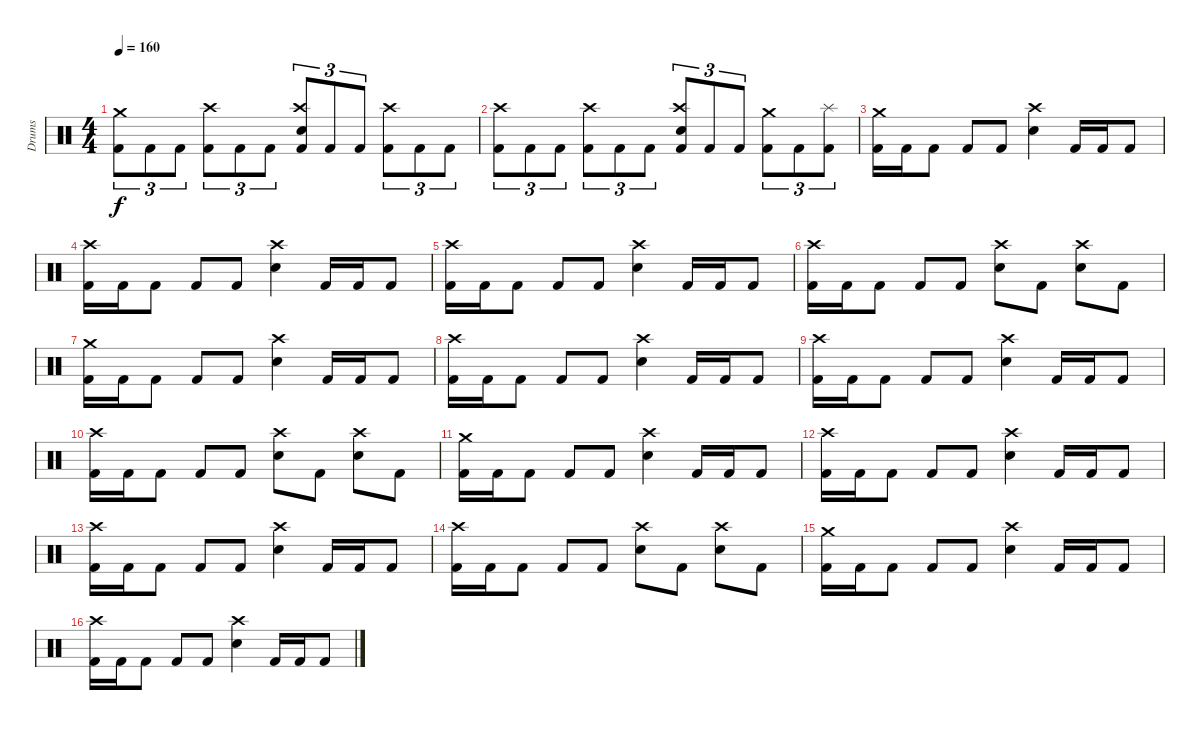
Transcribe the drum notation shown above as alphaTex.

\track ("Drums" "Drums") {instrument percussion}
\staff
\articulation defaults
\ts (4 4)
\tempo 160
\clef neutral
\ks c
("Crash medium (hit)" "Kick (hit) 2").8{tu (3 2) dy f} "Kick (hit) 2".8{tu (3 2)} "Kick (hit) 2".8{tu (3 2)} ("Crash high (hit)" "Kick (hit) 2").8{tu (3 2)} "Kick (hit) 2".8{tu (3 2)} "Kick (hit) 2".8{tu (3 2)} ("Crash high (hit)" "Electric Snare (hit)" "Kick (hit) 2").8{tu (3 2)} "Kick (hit) 2".8{tu (3 2)} "Kick (hit) 2".8{tu (3 2)} ("Crash high (hit)" "Kick (hit) 2").8{tu (3 2)} "Kick (hit) 2".8{tu (3 2)} "Kick (hit) 2".8{tu (3 2)} |
("Crash high (hit)" "Kick (hit) 2").8{tu (3 2)} "Kick (hit) 2".8{tu (3 2)} "Kick (hit) 2".8{tu (3 2)} ("Crash high (hit)" "Kick (hit) 2").8{tu (3 2)} "Kick (hit) 2".8{tu (3 2)} "Kick (hit) 2".8{tu (3 2)} ("Crash high (hit)" "Electric Snare (hit)" "Kick (hit) 2").8{tu (3 2)} "Kick (hit) 2".8{tu (3 2)} "Kick (hit) 2".8{tu (3 2)} ("Crash medium (hit)" "Kick (hit) 2").8{tu (3 2)} "Kick (hit) 2".8{tu (3 2)} ("Splash (hit)" "Kick (hit) 2").8{tu (3 2)} |
("Crash medium (hit)" "Kick (hit) 2").16 "Kick (hit) 2".16 "Kick (hit) 2".8 "Kick (hit) 2".8 "Kick (hit) 2".8 ("Crash high (hit)" "Electric Snare (hit)").4 "Kick (hit) 2".16 "Kick (hit) 2".16 "Kick (hit) 2".8 |
("Crash high (hit)" "Kick (hit) 2").16 "Kick (hit) 2".16 "Kick (hit) 2".8 "Kick (hit) 2".8 "Kick (hit) 2".8 ("Crash high (hit)" "Electric Snare (hit)").4 "Kick (hit) 2".16 "Kick (hit) 2".16 "Kick (hit) 2".8 |
("Crash high (hit)" "Kick (hit) 2").16 "Kick (hit) 2".16 "Kick (hit) 2".8 "Kick (hit) 2".8 "Kick (hit) 2".8 ("Crash high (hit)" "Electric Snare (hit)").4 "Kick (hit) 2".16 "Kick (hit) 2".16 "Kick (hit) 2".8 |
("Crash high (hit)" "Kick (hit) 2").16 "Kick (hit) 2".16 "Kick (hit) 2".8 "Kick (hit) 2".8 "Kick (hit) 2".8 ("Crash high (hit)" "Electric Snare (hit)").8 "Kick (hit) 2".8 ("Crash high (hit)" "Electric Snare (hit)").8 "Kick (hit) 2".8 |
("Crash medium (hit)" "Kick (hit) 2").16 "Kick (hit) 2".16 "Kick (hit) 2".8 "Kick (hit) 2".8 "Kick (hit) 2".8 ("Crash high (hit)" "Electric Snare (hit)").4 "Kick (hit) 2".16 "Kick (hit) 2".16 "Kick (hit) 2".8 |
("Crash high (hit)" "Kick (hit) 2").16 "Kick (hit) 2".16 "Kick (hit) 2".8 "Kick (hit) 2".8 "Kick (hit) 2".8 ("Crash high (hit)" "Electric Snare (hit)").4 "Kick (hit) 2".16 "Kick (hit) 2".16 "Kick (hit) 2".8 |
("Crash high (hit)" "Kick (hit) 2").16 "Kick (hit) 2".16 "Kick (hit) 2".8 "Kick (hit) 2".8 "Kick (hit) 2".8 ("Crash high (hit)" "Electric Snare (hit)").4 "Kick (hit) 2".16 "Kick (hit) 2".16 "Kick (hit) 2".8 |
("Crash high (hit)" "Kick (hit) 2").16 "Kick (hit) 2".16 "Kick (hit) 2".8 "Kick (hit) 2".8 "Kick (hit) 2".8 ("Crash high (hit)" "Electric Snare (hit)").8 "Kick (hit) 2".8 ("Crash high (hit)" "Electric Snare (hit)").8 "Kick (hit) 2".8 |
("Crash medium (hit)" "Kick (hit) 2").16 "Kick (hit) 2".16 "Kick (hit) 2".8 "Kick (hit) 2".8 "Kick (hit) 2".8 ("Crash high (hit)" "Electric Snare (hit)").4 "Kick (hit) 2".16 "Kick (hit) 2".16 "Kick (hit) 2".8 |
("Crash high (hit)" "Kick (hit) 2").16 "Kick (hit) 2".16 "Kick (hit) 2".8 "Kick (hit) 2".8 "Kick (hit) 2".8 ("Crash high (hit)" "Electric Snare (hit)").4 "Kick (hit) 2".16 "Kick (hit) 2".16 "Kick (hit) 2".8 |
("Crash high (hit)" "Kick (hit) 2").16 "Kick (hit) 2".16 "Kick (hit) 2".8 "Kick (hit) 2".8 "Kick (hit) 2".8 ("Crash high (hit)" "Electric Snare (hit)").4 "Kick (hit) 2".16 "Kick (hit) 2".16 "Kick (hit) 2".8 |
("Crash high (hit)" "Kick (hit) 2").16 "Kick (hit) 2".16 "Kick (hit) 2".8 "Kick (hit) 2".8 "Kick (hit) 2".8 ("Crash high (hit)" "Electric Snare (hit)").8 "Kick (hit) 2".8 ("Crash high (hit)" "Electric Snare (hit)").8 "Kick (hit) 2".8 |
("Crash medium (hit)" "Kick (hit) 2").16 "Kick (hit) 2".16 "Kick (hit) 2".8 "Kick (hit) 2".8 "Kick (hit) 2".8 ("Crash high (hit)" "Electric Snare (hit)").4 "Kick (hit) 2".16 "Kick (hit) 2".16 "Kick (hit) 2".8 |
("Crash high (hit)" "Kick (hit) 2").16 "Kick (hit) 2".16 "Kick (hit) 2".8 "Kick (hit) 2".8 "Kick (hit) 2".8 ("Crash high (hit)" "Electric Snare (hit)").4 "Kick (hit) 2".16 "Kick (hit) 2".16 "Kick (hit) 2".8
